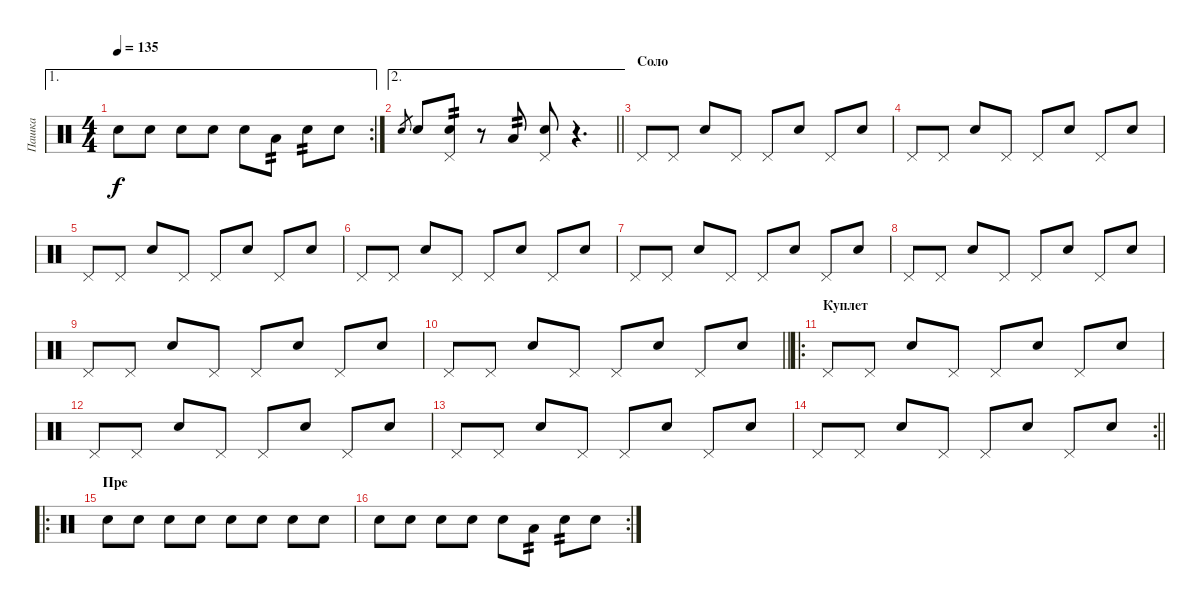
\track ("Пашка" "Пашка") {instrument percussion}
\staff {score}
\articulation defaults
\ae 1
\rc 2
\ts (4 4)
\tempo 135
\clef neutral
\ks c "Snare (hit) 2".8{dy f} "Snare (hit) 2".8 "Snare (hit) 2".8 "Snare (hit) 2".8 "Snare (hit) 2".8 "Low Tom (hit)".8{tp 2} "Snare (hit) 2".8{tp 2} "Snare (hit) 2".8
|
\ae 2
\barLineRight lightlight "Snare (hit) 2".8{gr} "Snare (hit) 2".8
("Snare (hit) 2" "Pedal Hi-Hat (hit)").8{tp 2} r.8 "Low Tom (hit)".8{tp 2} ("Snare (hit) 2" "Pedal Hi-Hat (hit)").8 r.4{d} |
\section ("" "Соло")
"Pedal Hi-Hat (hit)".8 "Pedal Hi-Hat (hit)".8 "Snare (hit) 2".8 "Pedal Hi-Hat (hit)".8 "Pedal Hi-Hat (hit)".8 "Snare (hit) 2".8 "Pedal Hi-Hat (hit)".8 "Snare (hit) 2".8 |
"Pedal Hi-Hat (hit)".8 "Pedal Hi-Hat (hit)".8 "Snare (hit) 2".8 "Pedal Hi-Hat (hit)".8 "Pedal Hi-Hat (hit)".8 "Snare (hit) 2".8 "Pedal Hi-Hat (hit)".8 "Snare (hit) 2".8 |
"Pedal Hi-Hat (hit)".8 "Pedal Hi-Hat (hit)".8 "Snare (hit) 2".8 "Pedal Hi-Hat (hit)".8 "Pedal Hi-Hat (hit)".8 "Snare (hit) 2".8 "Pedal Hi-Hat (hit)".8 "Snare (hit) 2".8 |
"Pedal Hi-Hat (hit)".8 "Pedal Hi-Hat (hit)".8 "Snare (hit) 2".8 "Pedal Hi-Hat (hit)".8 "Pedal Hi-Hat (hit)".8 "Snare (hit) 2".8 "Pedal Hi-Hat (hit)".8 "Snare (hit) 2".8 |
"Pedal Hi-Hat (hit)".8 "Pedal Hi-Hat (hit)".8 "Snare (hit) 2".8 "Pedal Hi-Hat (hit)".8 "Pedal Hi-Hat (hit)".8 "Snare (hit) 2".8 "Pedal Hi-Hat (hit)".8 "Snare (hit) 2".8 |
"Pedal Hi-Hat (hit)".8 "Pedal Hi-Hat (hit)".8 "Snare (hit) 2".8 "Pedal Hi-Hat (hit)".8 "Pedal Hi-Hat (hit)".8 "Snare (hit) 2".8 "Pedal Hi-Hat (hit)".8 "Snare (hit) 2".8 |
"Pedal Hi-Hat (hit)".8 "Pedal Hi-Hat (hit)".8 "Snare (hit) 2".8 "Pedal Hi-Hat (hit)".8 "Pedal Hi-Hat (hit)".8 "Snare (hit) 2".8 "Pedal Hi-Hat (hit)".8 "Snare (hit) 2".8 |
\barLineRight lightlight "Pedal Hi-Hat (hit)".8 "Pedal Hi-Hat (hit)".8 "Snare (hit) 2".8 "Pedal Hi-Hat (hit)".8 "Pedal Hi-Hat (hit)".8 "Snare (hit) 2".8 "Pedal Hi-Hat (hit)".8 "Snare (hit) 2".8
|
\ro
\section ("" "Куплет")
"Pedal Hi-Hat (hit)".8 "Pedal Hi-Hat (hit)".8 "Snare (hit) 2".8 "Pedal Hi-Hat (hit)".8 "Pedal Hi-Hat (hit)".8 "Snare (hit) 2".8 "Pedal Hi-Hat (hit)".8 "Snare (hit) 2".8 |
"Pedal Hi-Hat (hit)".8 "Pedal Hi-Hat (hit)".8 "Snare (hit) 2".8 "Pedal Hi-Hat (hit)".8 "Pedal Hi-Hat (hit)".8 "Snare (hit) 2".8 "Pedal Hi-Hat (hit)".8 "Snare (hit) 2".8 |
"Pedal Hi-Hat (hit)".8 "Pedal Hi-Hat (hit)".8 "Snare (hit) 2".8 "Pedal Hi-Hat (hit)".8 "Pedal Hi-Hat (hit)".8 "Snare (hit) 2".8 "Pedal Hi-Hat (hit)".8 "Snare (hit) 2".8 |
\rc 2
\barLineRight lightlight "Pedal Hi-Hat (hit)".8 "Pedal Hi-Hat (hit)".8 "Snare (hit) 2".8 "Pedal Hi-Hat (hit)".8 "Pedal Hi-Hat (hit)".8 "Snare (hit) 2".8 "Pedal Hi-Hat (hit)".8 "Snare (hit) 2".8
|
\ro
\section ("" "Пре")
"Snare (hit) 2".8 "Snare (hit) 2".8 "Snare (hit) 2".8 "Snare (hit) 2".8 "Snare (hit) 2".8 "Snare (hit) 2".8 "Snare (hit) 2".8 "Snare (hit) 2".8 |
\rc 2 "Snare (hit) 2".8 "Snare (hit) 2".8 "Snare (hit) 2".8 "Snare (hit) 2".8 "Snare (hit) 2".8 "Low Tom (hit)".8{tp 2} "Snare (hit) 2".8{tp 2} "Snare (hit) 2".8
